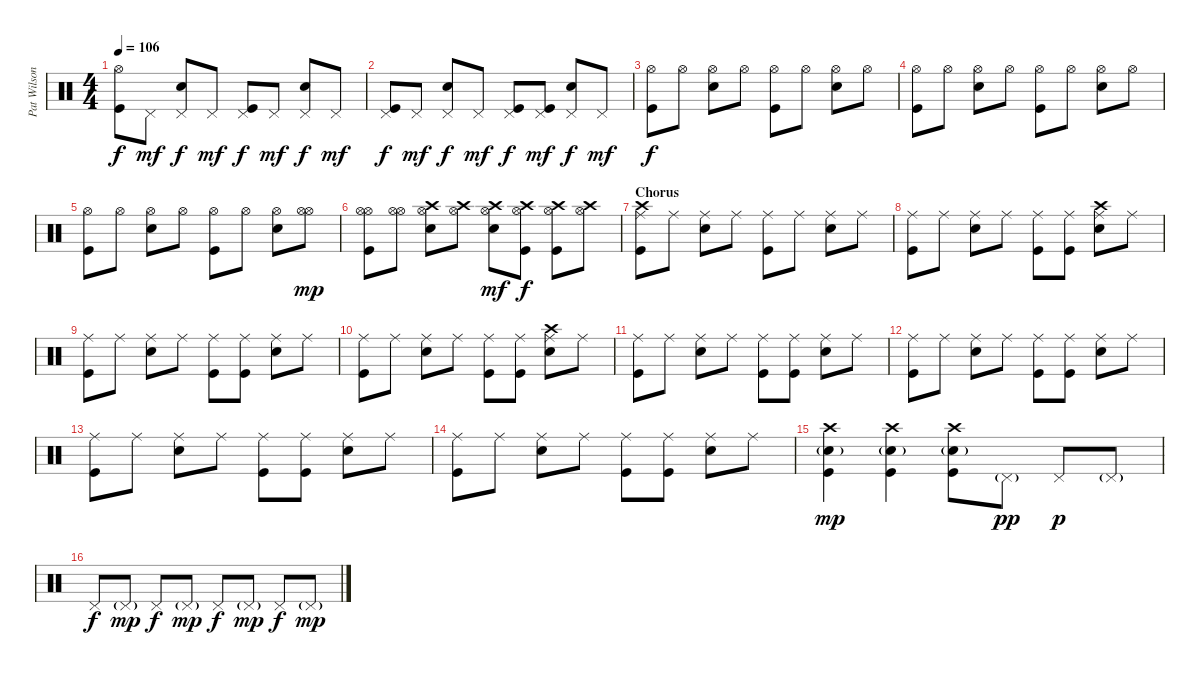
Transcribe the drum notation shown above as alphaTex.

\track ("Pat Wilson" "Pat Wilson") {instrument percussion}
\staff {score}
\articulation defaults
\ts (4 4)
\tempo 106
\clef neutral
\ks c
("Hi-Hat (open)" "Kick (hit)").8{dy f} "Pedal Hi-Hat (hit)".8{dy mf} ("Pedal Hi-Hat (hit)" "Snare (hit) 2").8{dy f} "Pedal Hi-Hat (hit)".8{dy mf} ("Pedal Hi-Hat (hit)" "Kick (hit)").8{dy f} "Pedal Hi-Hat (hit)".8{dy mf} ("Pedal Hi-Hat (hit)" "Snare (hit) 2").8{dy f} "Pedal Hi-Hat (hit)".8{dy mf} |
("Pedal Hi-Hat (hit)" "Kick (hit)").8{dy f} "Pedal Hi-Hat (hit)".8{dy mf} ("Pedal Hi-Hat (hit)" "Snare (hit) 2").8{dy f} "Pedal Hi-Hat (hit)".8{dy mf} ("Pedal Hi-Hat (hit)" "Kick (hit)").8{dy f} ("Pedal Hi-Hat (hit)" "Kick (hit)").8{dy mf} ("Pedal Hi-Hat (hit)" "Snare (hit) 2").8{dy f} "Pedal Hi-Hat (hit)".8{dy mf} |
("Hi-Hat (open)" "Kick (hit)").8{dy f} "Hi-Hat (open)".8 ("Hi-Hat (open)" "Snare (hit) 2").8 "Hi-Hat (open)".8 ("Hi-Hat (open)" "Kick (hit)").8 "Hi-Hat (open)".8 ("Hi-Hat (open)" "Snare (hit) 2").8 "Hi-Hat (open)".8 |
("Hi-Hat (open)" "Kick (hit)").8 "Hi-Hat (open)".8 ("Hi-Hat (open)" "Snare (hit) 2").8 "Hi-Hat (open)".8 ("Hi-Hat (open)" "Kick (hit)").8 "Hi-Hat (open)".8 ("Hi-Hat (open)" "Snare (hit) 2").8 "Hi-Hat (open)".8 |
("Hi-Hat (open)" "Kick (hit)").8 "Hi-Hat (open)".8 ("Hi-Hat (open)" "Snare (hit) 2").8 "Hi-Hat (open)".8 ("Hi-Hat (open)" "Kick (hit)").8 "Hi-Hat (open)".8 ("Hi-Hat (open)" "Snare (hit) 2").8 ("Hi-Hat (open)" "Hi-Hat (open)").8{dy mp} |
("Hi-Hat (open)" "Hi-Hat (open)" "Kick (hit)").8 ("Hi-Hat (open)" "Hi-Hat (open)").8 ("Crash high (hit)" "Hi-Hat (open)" "Snare (hit) 2").8 ("Crash high (hit)" "Hi-Hat (open)").8 ("Crash high (hit)" "Hi-Hat (open)" "Snare (hit) 2").8{dy mf} ("Crash high (hit)" "Hi-Hat (open)" "Kick (hit)").8{dy f} ("Crash high (hit)" "Hi-Hat (open)" "Kick (hit)").8 ("Crash high (hit)" "Hi-Hat (open)").8 |
\section ("" "Chorus")
("Crash high (hit)" "Ride (middle)" "Kick (hit)").8 "Ride (middle)".8 ("Ride (middle)" "Snare (hit) 2").8 "Ride (middle)".8 ("Ride (middle)" "Kick (hit)").8 "Ride (middle)".8 ("Ride (middle)" "Snare (hit) 2").8 "Ride (middle)".8 |
("Ride (middle)" "Kick (hit)").8 "Ride (middle)".8 ("Ride (middle)" "Snare (hit) 2").8 "Ride (middle)".8 ("Ride (middle)" "Kick (hit)").8 ("Ride (middle)" "Kick (hit)").8 ("Crash high (hit)" "Ride (middle)" "Snare (hit) 2").8 "Ride (middle)".8 |
("Ride (middle)" "Kick (hit)").8 "Ride (middle)".8 ("Ride (middle)" "Snare (hit) 2").8 "Ride (middle)".8 ("Ride (middle)" "Kick (hit)").8 ("Ride (middle)" "Kick (hit)").8 ("Ride (middle)" "Snare (hit) 2").8 "Ride (middle)".8 |
("Ride (middle)" "Kick (hit)").8 "Ride (middle)".8 ("Ride (middle)" "Snare (hit) 2").8 "Ride (middle)".8 ("Ride (middle)" "Kick (hit)").8 ("Ride (middle)" "Kick (hit)").8 ("Crash high (hit)" "Ride (middle)" "Snare (hit) 2").8 "Ride (middle)".8 |
("Ride (middle)" "Kick (hit)").8 "Ride (middle)".8 ("Ride (middle)" "Snare (hit) 2").8 "Ride (middle)".8 ("Ride (middle)" "Kick (hit)").8 ("Ride (middle)" "Kick (hit)").8 ("Ride (middle)" "Snare (hit) 2").8 "Ride (middle)".8 |
("Ride (middle)" "Kick (hit)").8 "Ride (middle)".8 ("Ride (middle)" "Snare (hit) 2").8 "Ride (middle)".8 ("Ride (middle)" "Kick (hit)").8 ("Ride (middle)" "Kick (hit)").8 ("Ride (middle)" "Snare (hit) 2").8 "Ride (middle)".8 |
("Ride (middle)" "Kick (hit)").8 "Ride (middle)".8 ("Ride (middle)" "Snare (hit) 2").8 "Ride (middle)".8 ("Ride (middle)" "Kick (hit)").8 ("Ride (middle)" "Kick (hit)").8 ("Ride (middle)" "Snare (hit) 2").8 "Ride (middle)".8 |
("Ride (middle)" "Kick (hit)").8 "Ride (middle)".8 ("Ride (middle)" "Snare (hit) 2").8 "Ride (middle)".8 ("Ride (middle)" "Kick (hit)").8 ("Ride (middle)" "Kick (hit)").8 ("Ride (middle)" "Snare (hit) 2").8 "Ride (middle)".8 |
("Crash high (hit)" "Snare (hit) 2"{g} "Kick (hit)").4{dy mp} ("Crash high (hit)" "Snare (hit) 2"{g} "Kick (hit)").4 ("Crash high (hit)" "Snare (hit) 2"{g} "Kick (hit)").8 "Pedal Hi-Hat (hit)"{g}.8{dy pp} "Pedal Hi-Hat (hit)".8{dy p} "Pedal Hi-Hat (hit)"{g}.8 |
"Pedal Hi-Hat (hit)".8{dy f} "Pedal Hi-Hat (hit)"{g}.8{dy mp} "Pedal Hi-Hat (hit)".8{dy f} "Pedal Hi-Hat (hit)"{g}.8{dy mp} "Pedal Hi-Hat (hit)".8{dy f} "Pedal Hi-Hat (hit)"{g}.8{dy mp} "Pedal Hi-Hat (hit)".8{dy f} "Pedal Hi-Hat (hit)"{g}.8{dy mp}
